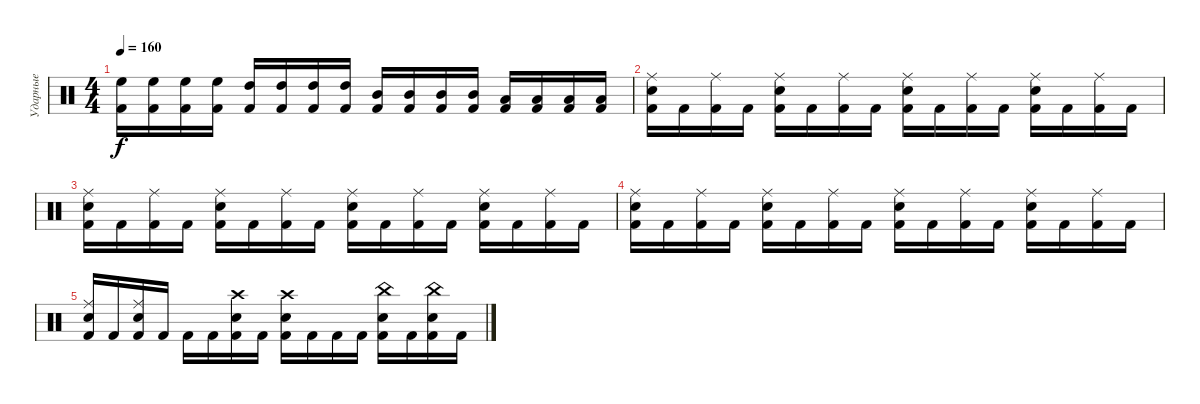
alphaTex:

\track ("Ударные" "Ударные") {instrument percussion}
\staff {score}
\articulation defaults
\ts (4 4)
\tempo 160
\clef neutral
\ks c
("Kick (hit) 2" "High Floor Tom (hit)").16{dy f} ("Kick (hit) 2" "High Floor Tom (hit)").16 ("Kick (hit) 2" "High Floor Tom (hit)").16 ("Kick (hit) 2" "High Floor Tom (hit)").16 ("Kick (hit) 2" "High Tom (hit)").16 ("Kick (hit) 2" "High Tom (hit)").16 ("Kick (hit) 2" "High Tom (hit)").16 ("Kick (hit) 2" "High Tom (hit)").16 ("Kick (hit) 2" "Mid Tom (hit)").16 ("Kick (hit) 2" "Mid Tom (hit)").16 ("Kick (hit) 2" "Mid Tom (hit)").16 ("Kick (hit) 2" "Mid Tom (hit)").16 ("Kick (hit) 2" "Low Tom (hit)").16 ("Kick (hit) 2" "Low Tom (hit)").16 ("Kick (hit) 2" "Low Tom (hit)").16 ("Kick (hit) 2" "Low Tom (hit)").16 |
("Kick (hit) 2" "Ride (middle)" "Snare (hit) 2").16 "Kick (hit) 2".16 ("Kick (hit) 2" "Ride (middle)").16 "Kick (hit) 2".16 ("Kick (hit) 2" "Ride (middle)" "Snare (hit) 2").16 "Kick (hit) 2".16 ("Kick (hit) 2" "Ride (middle)").16 "Kick (hit) 2".16 ("Kick (hit) 2" "Ride (middle)" "Snare (hit) 2").16 "Kick (hit) 2".16 ("Kick (hit) 2" "Ride (middle)").16 "Kick (hit) 2".16 ("Kick (hit) 2" "Ride (middle)" "Snare (hit) 2").16 "Kick (hit) 2".16 ("Kick (hit) 2" "Ride (middle)").16 "Kick (hit) 2".16 |
("Kick (hit) 2" "Ride (middle)" "Snare (hit) 2").16 "Kick (hit) 2".16 ("Kick (hit) 2" "Ride (middle)").16 "Kick (hit) 2".16 ("Kick (hit) 2" "Ride (middle)" "Snare (hit) 2").16 "Kick (hit) 2".16 ("Kick (hit) 2" "Ride (middle)").16 "Kick (hit) 2".16 ("Kick (hit) 2" "Ride (middle)" "Snare (hit) 2").16 "Kick (hit) 2".16 ("Kick (hit) 2" "Ride (middle)").16 "Kick (hit) 2".16 ("Kick (hit) 2" "Ride (middle)" "Snare (hit) 2").16 "Kick (hit) 2".16 ("Kick (hit) 2" "Ride (middle)").16 "Kick (hit) 2".16 |
("Kick (hit) 2" "Ride (middle)" "Snare (hit) 2").16 "Kick (hit) 2".16 ("Kick (hit) 2" "Ride (middle)").16 "Kick (hit) 2".16 ("Kick (hit) 2" "Ride (middle)" "Snare (hit) 2").16 "Kick (hit) 2".16 ("Kick (hit) 2" "Ride (middle)").16 "Kick (hit) 2".16 ("Kick (hit) 2" "Ride (middle)" "Snare (hit) 2").16 "Kick (hit) 2".16 ("Kick (hit) 2" "Ride (middle)").16 "Kick (hit) 2".16 ("Kick (hit) 2" "Ride (middle)" "Snare (hit) 2").16 "Kick (hit) 2".16 ("Kick (hit) 2" "Ride (middle)").16 "Kick (hit) 2".16 |
("Kick (hit) 2" "Snare (hit) 2" "Ride (middle)").16 "Kick (hit) 2".16 ("Kick (hit) 2" "Snare (hit) 2" "Ride (middle)").16 "Kick (hit) 2".16 "Kick (hit) 2".16 "Kick (hit) 2".16 ("Kick (hit) 2" "Snare (hit) 2" "Crash high (hit)").16 "Kick (hit) 2".16 ("Kick (hit) 2" "Snare (hit) 2" "Crash high (hit)").16 "Kick (hit) 2".16 "Kick (hit) 2".16 "Kick (hit) 2".16 ("Kick (hit) 2" "Snare (hit) 2" "China (hit)").16 "Kick (hit) 2".16 ("Kick (hit) 2" "Snare (hit) 2" "China (hit)").16 "Kick (hit) 2".16
